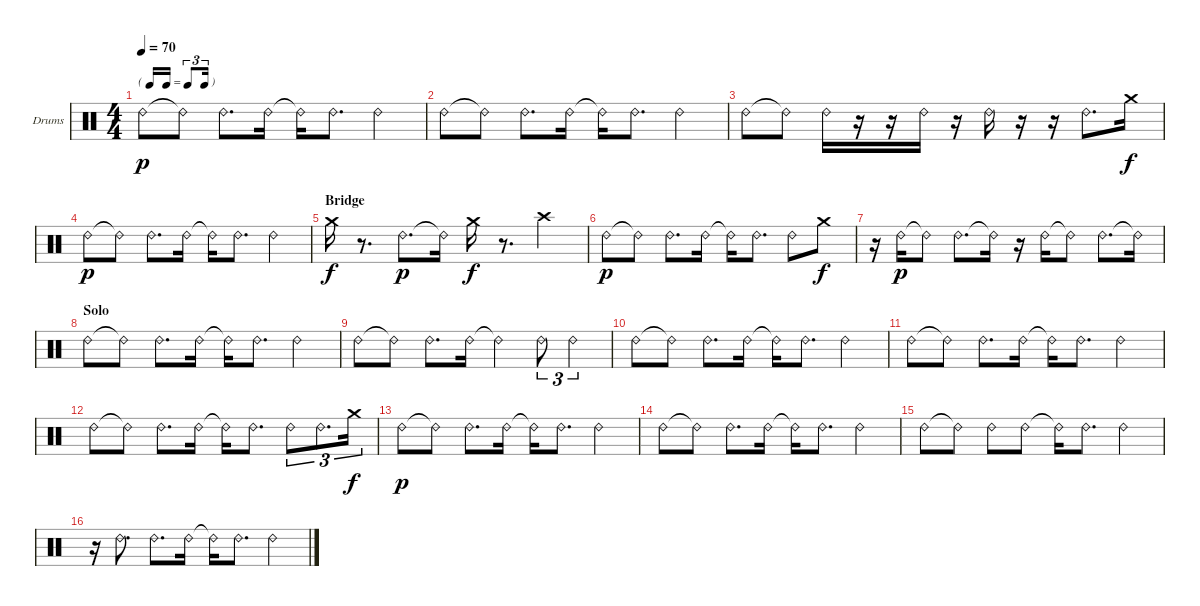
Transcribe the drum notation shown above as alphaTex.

\bracketExtendMode groupsimilarinstruments
\firstSystemTrackNameOrientation horizontal
\otherSystemsTrackNameOrientation horizontal
\track ("OH" "Drums") {instrument percussion}
\staff {score}
\articulation defaults
\ts (4 4)
\tf triplet16th
\tempo 70
\clef neutral
\ks aminor "Ride (bell) 2".8{dy p} "Ride (bell) 2"{t}.8 "Ride (bell) 2".8{d} "Ride (bell) 2".16 "Ride (bell) 2"{t}.16 "Ride (bell) 2".8{d} "Ride (bell) 2".4
|
"Ride (bell) 2".8 "Ride (bell) 2"{t}.8 "Ride (bell) 2".8{d} "Ride (bell) 2".16 "Ride (bell) 2"{t}.16 "Ride (bell) 2".8{d} "Ride (bell) 2".4 |
"Ride (bell) 2".8 "Ride (bell) 2"{t}.8 "Ride (bell) 2".16 r.16 r.16 "Ride (bell) 2".16 r.16 "Ride (bell) 2".16 r.16 r.16 "Ride (bell) 2".8{d} "Crash medium (hit)".16{dy f} |
"Ride (bell) 2".8{dy p} "Ride (bell) 2"{t}.8 "Ride (bell) 2".8{d} "Ride (bell) 2".16 "Ride (bell) 2"{t}.16 "Ride (bell) 2".8{d} "Ride (bell) 2".4 |
\section ("" "Bridge")
\scale
0.333333 "Crash medium (hit)".16{dy f} r.8{d} "Ride (bell) 2".8{d dy p} "Ride (bell) 2"{t}.16 "Crash medium (hit)".16{dy f} r.8{d} "Crash high (hit)".4 |
\scale
0.333333 "Ride (bell) 2".8{dy p} "Ride (bell) 2"{t}.8 "Ride (bell) 2".8{d} "Ride (bell) 2".16 "Ride (bell) 2"{t}.16 "Ride (bell) 2".8{d} "Ride (bell) 2".8 "Crash medium (hit)".8{dy f} |
\scale
0.333333 r.16 "Ride (bell) 2".16{dy p} "Ride (bell) 2"{t}.8 "Ride (bell) 2".8{d} "Ride (bell) 2"{t}.16 r.16 "Ride (bell) 2".16 "Ride (bell) 2"{t}.8 "Ride (bell) 2".8{d} "Ride (bell) 2"{t}.16 |
\section ("" "Solo")
\scale
0.333333 "Ride (bell) 2".8 "Ride (bell) 2"{t}.8 "Ride (bell) 2".8{d} "Ride (bell) 2".16 "Ride (bell) 2"{t}.16 "Ride (bell) 2".8{d} "Ride (bell) 2".4 |
\scale
0.333333 "Ride (bell) 2".8 "Ride (bell) 2"{t}.8 "Ride (bell) 2".8{d} "Ride (bell) 2".16 "Ride (bell) 2"{t}.4 "Ride (bell) 2".8{tu (3 2)} "Ride (bell) 2".4{tu (3 2)} |
\scale
0.333333 "Ride (bell) 2".8 "Ride (bell) 2"{t}.8 "Ride (bell) 2".8{d} "Ride (bell) 2".16 "Ride (bell) 2"{t}.16 "Ride (bell) 2".8{d} "Ride (bell) 2".4 |
\scale
0.333333 "Ride (bell) 2".8 "Ride (bell) 2"{t}.8 "Ride (bell) 2".8{d} "Ride (bell) 2".16 "Ride (bell) 2"{t}.16 "Ride (bell) 2".8{d} "Ride (bell) 2".4 |
\scale
0.333333 "Ride (bell) 2".8 "Ride (bell) 2"{t}.8 "Ride (bell) 2".8{d} "Ride (bell) 2".16 "Ride (bell) 2"{t}.16 "Ride (bell) 2".8{d} "Ride (bell) 2".8{tu (3 2)} "Ride (bell) 2".8{d tu (3 2)} "Crash medium (hit)".16{tu (3 2) dy f} |
\scale
0.333333 "Ride (bell) 2".8{dy p} "Ride (bell) 2"{t}.8 "Ride (bell) 2".8{d} "Ride (bell) 2".16 "Ride (bell) 2"{t}.16 "Ride (bell) 2".8{d} "Ride (bell) 2".4 |
\scale
0.333333 "Ride (bell) 2".8 "Ride (bell) 2"{t}.8 "Ride (bell) 2".8{d} "Ride (bell) 2".16 "Ride (bell) 2"{t}.16 "Ride (bell) 2".8{d} "Ride (bell) 2".4 |
\scale
0.333333 "Ride (bell) 2".8 "Ride (bell) 2"{t}.8 "Ride (bell) 2".8 "Ride (bell) 2".8 "Ride (bell) 2"{t}.16 "Ride (bell) 2".8{d} "Ride (bell) 2".4 |
\scale
0.333333 r.16 "Ride (bell) 2".8{d} "Ride (bell) 2".8{d} "Ride (bell) 2".16 "Ride (bell) 2"{t}.16 "Ride (bell) 2".8{d} "Ride (bell) 2".4
